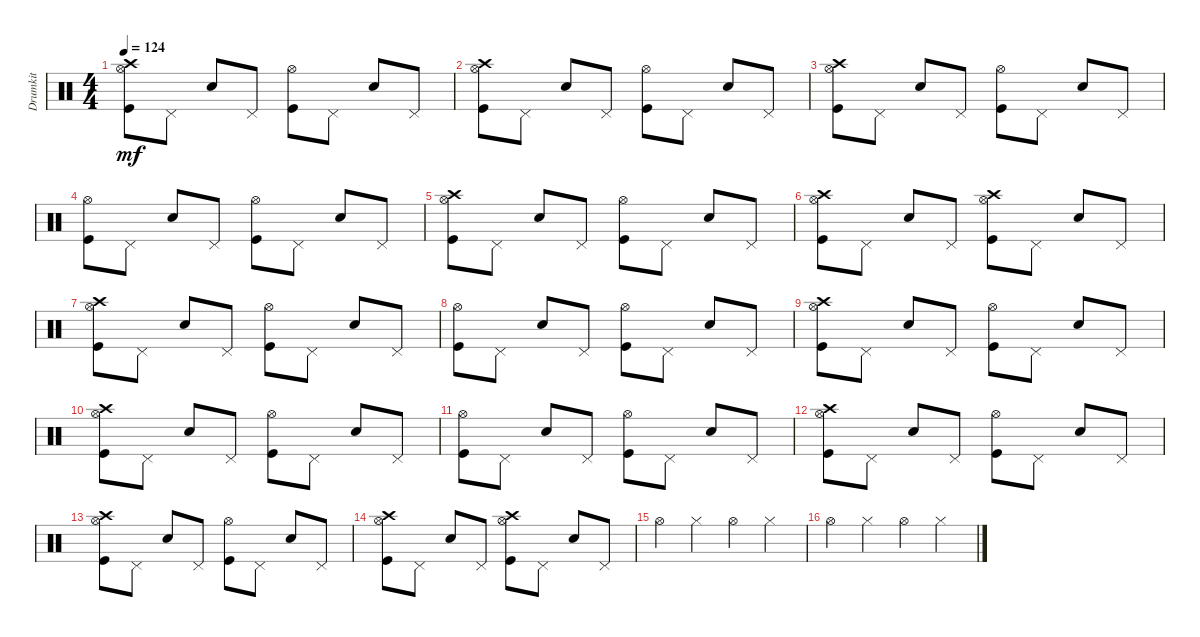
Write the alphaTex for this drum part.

\track ("Drumkit" "Drumkit") {instrument percussion}
\staff {score}
\articulation defaults
\ts (4 4)
\tempo 124
\clef neutral
\ks c
("Kick (hit)" "Hi-Hat (open)" "Crash high (hit)").8{dy mf} "Pedal Hi-Hat (hit)".8 "Snare (hit) 2".8 "Pedal Hi-Hat (hit)".8 ("Kick (hit)" "Hi-Hat (open)").8 "Pedal Hi-Hat (hit)".8 "Snare (hit) 2".8 "Pedal Hi-Hat (hit)".8 |
("Kick (hit)" "Hi-Hat (open)" "Crash high (hit)").8 "Pedal Hi-Hat (hit)".8 "Snare (hit) 2".8 "Pedal Hi-Hat (hit)".8 ("Kick (hit)" "Hi-Hat (open)").8 "Pedal Hi-Hat (hit)".8 "Snare (hit) 2".8 "Pedal Hi-Hat (hit)".8 |
("Kick (hit)" "Hi-Hat (open)" "Crash high (hit)").8 "Pedal Hi-Hat (hit)".8 "Snare (hit) 2".8 "Pedal Hi-Hat (hit)".8 ("Kick (hit)" "Hi-Hat (open)").8 "Pedal Hi-Hat (hit)".8 "Snare (hit) 2".8 "Pedal Hi-Hat (hit)".8 |
("Kick (hit)" "Hi-Hat (open)").8 "Pedal Hi-Hat (hit)".8 "Snare (hit) 2".8 "Pedal Hi-Hat (hit)".8 ("Kick (hit)" "Hi-Hat (open)").8 "Pedal Hi-Hat (hit)".8 "Snare (hit) 2".8 "Pedal Hi-Hat (hit)".8 |
("Kick (hit)" "Hi-Hat (open)" "Crash high (hit)").8 "Pedal Hi-Hat (hit)".8 "Snare (hit) 2".8 "Pedal Hi-Hat (hit)".8 ("Kick (hit)" "Hi-Hat (open)").8 "Pedal Hi-Hat (hit)".8 "Snare (hit) 2".8 "Pedal Hi-Hat (hit)".8 |
("Kick (hit)" "Hi-Hat (open)" "Crash high (hit)").8 "Pedal Hi-Hat (hit)".8 "Snare (hit) 2".8 "Pedal Hi-Hat (hit)".8 ("Kick (hit)" "Hi-Hat (open)" "Crash high (hit)").8 "Pedal Hi-Hat (hit)".8 "Snare (hit) 2".8 "Pedal Hi-Hat (hit)".8 |
("Kick (hit)" "Hi-Hat (open)" "Crash high (hit)").8 "Pedal Hi-Hat (hit)".8 "Snare (hit) 2".8 "Pedal Hi-Hat (hit)".8 ("Kick (hit)" "Hi-Hat (open)").8 "Pedal Hi-Hat (hit)".8 "Snare (hit) 2".8 "Pedal Hi-Hat (hit)".8 |
("Kick (hit)" "Hi-Hat (open)").8 "Pedal Hi-Hat (hit)".8 "Snare (hit) 2".8 "Pedal Hi-Hat (hit)".8 ("Kick (hit)" "Hi-Hat (open)").8 "Pedal Hi-Hat (hit)".8 "Snare (hit) 2".8 "Pedal Hi-Hat (hit)".8 |
("Kick (hit)" "Hi-Hat (open)" "Crash high (hit)").8 "Pedal Hi-Hat (hit)".8 "Snare (hit) 2".8 "Pedal Hi-Hat (hit)".8 ("Kick (hit)" "Hi-Hat (open)").8 "Pedal Hi-Hat (hit)".8 "Snare (hit) 2".8 "Pedal Hi-Hat (hit)".8 |
("Kick (hit)" "Hi-Hat (open)" "Crash high (hit)").8 "Pedal Hi-Hat (hit)".8 "Snare (hit) 2".8 "Pedal Hi-Hat (hit)".8 ("Kick (hit)" "Hi-Hat (open)").8 "Pedal Hi-Hat (hit)".8 "Snare (hit) 2".8 "Pedal Hi-Hat (hit)".8 |
("Kick (hit)" "Hi-Hat (open)").8 "Pedal Hi-Hat (hit)".8 "Snare (hit) 2".8 "Pedal Hi-Hat (hit)".8 ("Kick (hit)" "Hi-Hat (open)").8 "Pedal Hi-Hat (hit)".8 "Snare (hit) 2".8 "Pedal Hi-Hat (hit)".8 |
("Kick (hit)" "Hi-Hat (open)" "Crash high (hit)").8 "Pedal Hi-Hat (hit)".8 "Snare (hit) 2".8 "Pedal Hi-Hat (hit)".8 ("Kick (hit)" "Hi-Hat (open)").8 "Pedal Hi-Hat (hit)".8 "Snare (hit) 2".8 "Pedal Hi-Hat (hit)".8 |
("Kick (hit)" "Hi-Hat (open)" "Crash high (hit)").8 "Pedal Hi-Hat (hit)".8 "Snare (hit) 2".8 "Pedal Hi-Hat (hit)".8 ("Kick (hit)" "Hi-Hat (open)").8 "Pedal Hi-Hat (hit)".8 "Snare (hit) 2".8 "Pedal Hi-Hat (hit)".8 |
("Kick (hit)" "Hi-Hat (open)" "Crash high (hit)").8 "Pedal Hi-Hat (hit)".8 "Snare (hit) 2".8 "Pedal Hi-Hat (hit)".8 ("Kick (hit)" "Hi-Hat (open)" "Crash high (hit)").8 "Pedal Hi-Hat (hit)".8 "Snare (hit) 2".8 "Pedal Hi-Hat (hit)".8 |
"Hi-Hat (open)".4 "Hi-Hat (closed)".4 "Hi-Hat (open)".4 "Hi-Hat (closed)".4 |
"Hi-Hat (open)".4 "Hi-Hat (closed)".4 "Hi-Hat (open)".4 "Hi-Hat (closed)".4
